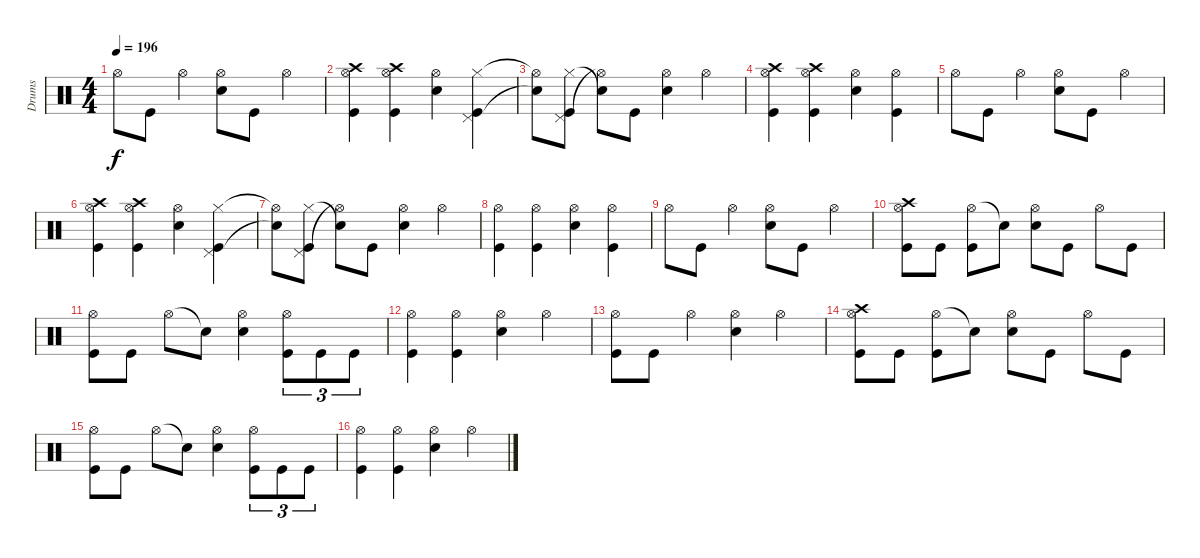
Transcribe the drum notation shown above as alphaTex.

\track ("Drums" "Drums") {instrument percussion}
\staff {score}
\articulation defaults
\ts (4 4)
\tempo 196
\clef neutral
\ks c "Hi-Hat (open)".8{dy f} "Kick (hit)".8 "Hi-Hat (open)".4
("Hi-Hat (open)" "Electric Snare (hit)").8 "Kick (hit)".8 "Hi-Hat (open)".4 |
("Crash high (hit)" "Hi-Hat (open)" "Kick (hit)").4 ("Crash high (hit)" "Hi-Hat (open)" "Kick (hit)").4 ("Hi-Hat (open)" "Electric Snare (hit)").4 ("Pedal Hi-Hat (hit)" "Hi-Hat (closed)" "Kick (hit)").4 |
("Snare (hit)"{t} "Hi-Hat (open)"{t}).8 ("Hi-Hat (closed)" "Pedal Hi-Hat (hit)" "Kick (hit)").8 ("Snare (hit)"{t} "Hi-Hat (open)"{t}).8 "Kick (hit)".8 ("Hi-Hat (open)" "Electric Snare (hit)").4 "Hi-Hat (open)".4 |
("Crash high (hit)" "Hi-Hat (open)" "Kick (hit)").4 ("Crash high (hit)" "Hi-Hat (open)" "Kick (hit)").4 ("Hi-Hat (open)" "Electric Snare (hit)").4 ("Hi-Hat (open)" "Kick (hit)").4 |
"Hi-Hat (open)".8 "Kick (hit)".8 "Hi-Hat (open)".4 ("Hi-Hat (open)" "Electric Snare (hit)").8 "Kick (hit)".8 "Hi-Hat (open)".4 |
("Crash high (hit)" "Hi-Hat (open)" "Kick (hit)").4 ("Crash high (hit)" "Hi-Hat (open)" "Kick (hit)").4 ("Hi-Hat (open)" "Electric Snare (hit)").4 ("Pedal Hi-Hat (hit)" "Hi-Hat (closed)" "Kick (hit)").4 |
("Snare (hit)"{t} "Hi-Hat (open)"{t}).8 ("Hi-Hat (closed)" "Pedal Hi-Hat (hit)" "Kick (hit)").8 ("Snare (hit)"{t} "Hi-Hat (open)"{t}).8 "Kick (hit)".8 ("Hi-Hat (open)" "Electric Snare (hit)").4 "Hi-Hat (open)".4 |
("Hi-Hat (open)" "Kick (hit)").4 ("Hi-Hat (open)" "Kick (hit)").4 ("Hi-Hat (open)" "Electric Snare (hit)").4 ("Hi-Hat (open)" "Kick (hit)").4 |
"Hi-Hat (open)".8 "Kick (hit)".8 "Hi-Hat (open)".4 ("Hi-Hat (open)" "Electric Snare (hit)").8 "Kick (hit)".8 "Hi-Hat (open)".4 |
("Crash high (hit)" "Hi-Hat (open)" "Kick (hit)").8 "Kick (hit)".8 ("Hi-Hat (open)" "Kick (hit)").8 "Snare (hit)"{t}.8 ("Hi-Hat (open)" "Electric Snare (hit)").8 "Kick (hit)".8 "Hi-Hat (open)".8 "Kick (hit)".8 |
("Hi-Hat (open)" "Kick (hit)").8 "Kick (hit)".8 "Hi-Hat (open)".8 "Snare (hit)"{t}.8 ("Hi-Hat (open)" "Electric Snare (hit)").4 ("Hi-Hat (open)" "Kick (hit)").8{tu (3 2)} "Kick (hit)".8{tu (3 2)} "Kick (hit)".8{tu (3 2)} |
("Hi-Hat (open)" "Kick (hit)").4 ("Hi-Hat (open)" "Kick (hit)").4 ("Hi-Hat (open)" "Electric Snare (hit)").4 "Hi-Hat (open)".4 |
("Hi-Hat (open)" "Kick (hit)").8 "Kick (hit)".8 "Hi-Hat (open)".4 ("Hi-Hat (open)" "Electric Snare (hit)").4 "Hi-Hat (open)".4 |
("Crash high (hit)" "Hi-Hat (open)" "Kick (hit)").8 "Kick (hit)".8 ("Hi-Hat (open)" "Kick (hit)").8 "Snare (hit)"{t}.8 ("Hi-Hat (open)" "Electric Snare (hit)").8 "Kick (hit)".8 "Hi-Hat (open)".8 "Kick (hit)".8 |
("Hi-Hat (open)" "Kick (hit)").8 "Kick (hit)".8 "Hi-Hat (open)".8 "Snare (hit)"{t}.8 ("Hi-Hat (open)" "Electric Snare (hit)").4 ("Hi-Hat (open)" "Kick (hit)").8{tu (3 2)} "Kick (hit)".8{tu (3 2)} "Kick (hit)".8{tu (3 2)} |
("Hi-Hat (open)" "Kick (hit)").4 ("Hi-Hat (open)" "Kick (hit)").4 ("Hi-Hat (open)" "Electric Snare (hit)").4 "Hi-Hat (open)".4
